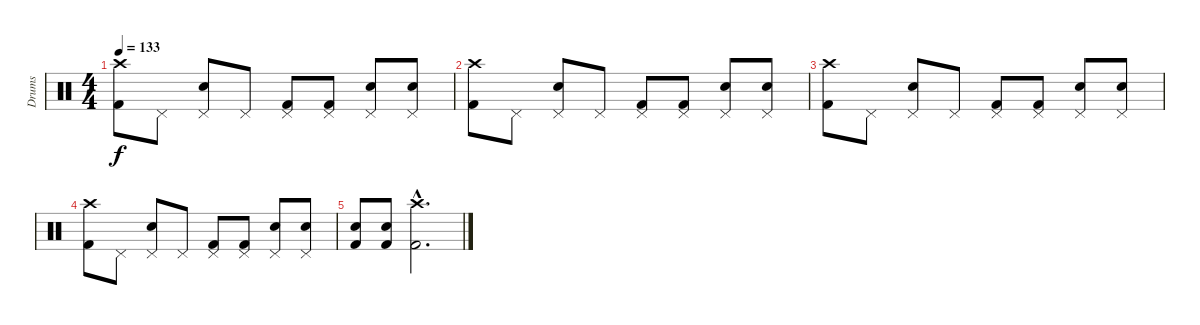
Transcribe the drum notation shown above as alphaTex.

\track ("Drums" "Drums") {instrument percussion}
\staff {score}
\articulation defaults
\ts (4 4)
\tempo 133
\clef neutral
\ks c
("Crash high (hit)" "Kick (hit) 2").8{dy f} "Pedal Hi-Hat (hit)".8 ("Pedal Hi-Hat (hit)" "Snare (hit) 2").8 "Pedal Hi-Hat (hit)".8 ("Pedal Hi-Hat (hit)" "Kick (hit) 2").8 ("Pedal Hi-Hat (hit)" "Kick (hit) 2").8 ("Pedal Hi-Hat (hit)" "Snare (hit) 2").8 ("Pedal Hi-Hat (hit)" "Snare (hit) 2").8 |
("Crash high (hit)" "Kick (hit) 2").8 "Pedal Hi-Hat (hit)".8 ("Pedal Hi-Hat (hit)" "Snare (hit) 2").8 "Pedal Hi-Hat (hit)".8 ("Pedal Hi-Hat (hit)" "Kick (hit) 2").8 ("Pedal Hi-Hat (hit)" "Kick (hit) 2").8 ("Pedal Hi-Hat (hit)" "Snare (hit) 2").8 ("Pedal Hi-Hat (hit)" "Snare (hit) 2").8 |
("Crash high (hit)" "Kick (hit) 2").8 "Pedal Hi-Hat (hit)".8 ("Pedal Hi-Hat (hit)" "Snare (hit) 2").8 "Pedal Hi-Hat (hit)".8 ("Pedal Hi-Hat (hit)" "Kick (hit) 2").8 ("Pedal Hi-Hat (hit)" "Kick (hit) 2").8 ("Pedal Hi-Hat (hit)" "Snare (hit) 2").8 ("Pedal Hi-Hat (hit)" "Snare (hit) 2").8 |
("Crash high (hit)" "Kick (hit) 2").8 "Pedal Hi-Hat (hit)".8 ("Pedal Hi-Hat (hit)" "Snare (hit) 2").8 "Pedal Hi-Hat (hit)".8 ("Pedal Hi-Hat (hit)" "Kick (hit) 2").8 ("Pedal Hi-Hat (hit)" "Kick (hit) 2").8 ("Pedal Hi-Hat (hit)" "Snare (hit) 2").8 ("Pedal Hi-Hat (hit)" "Snare (hit) 2").8 |
("Snare (hit) 2" "Kick (hit) 2").8 ("Snare (hit) 2" "Kick (hit) 2").8 ("Crash high (hit)"{hac} "Kick (hit) 2"{hac}).2{d}
